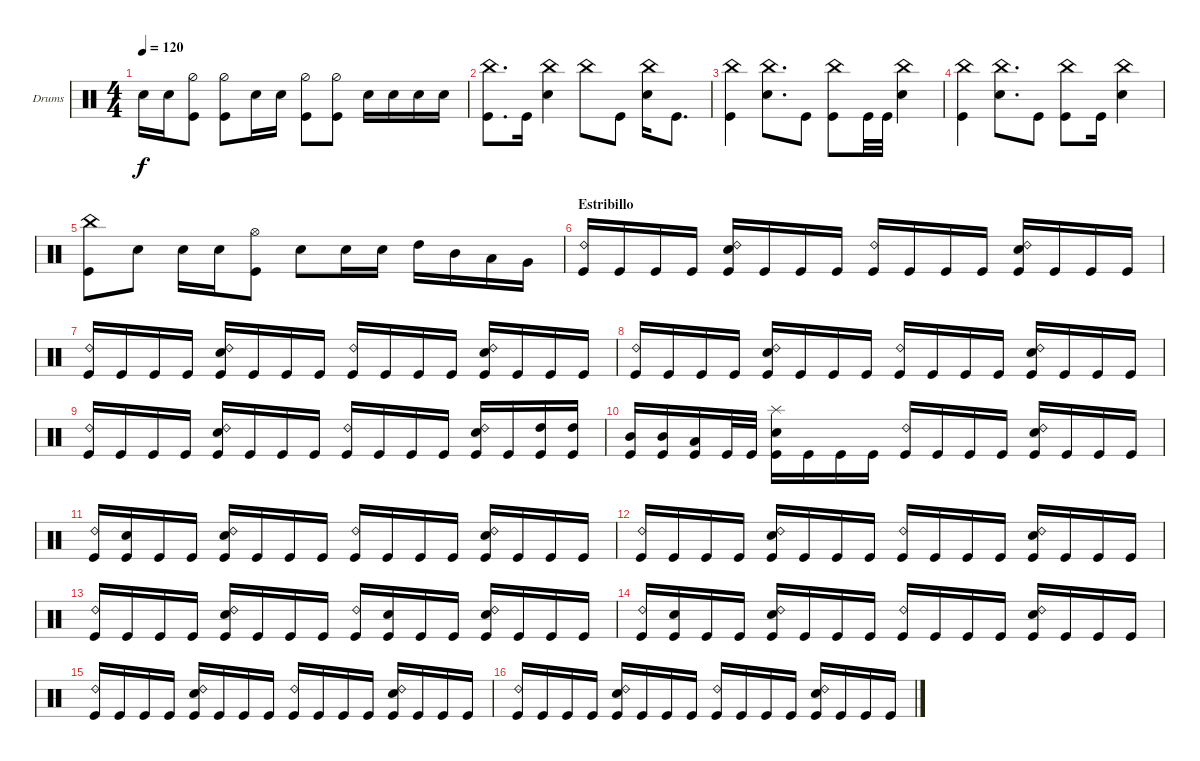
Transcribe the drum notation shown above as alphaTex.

\bracketExtendMode groupsimilarinstruments
\firstSystemTrackNameOrientation horizontal
\otherSystemsTrackNameOrientation horizontal
\track ("Drumkit" "Drums") {instrument percussion}
\staff {score}
\articulation defaults
\ts (4 4)
\tempo 120
\clef neutral
\ks c "Snare (hit) 2".16{dy f} "Snare (hit) 2".16
("Kick (hit)" "Hi-Hat (half)").8 ("Kick (hit)" "Hi-Hat (half)").8 "Snare (hit) 2".16 "Snare (hit) 2".16 ("Kick (hit)" "Hi-Hat (half)").8 ("Kick (hit)" "Hi-Hat (half)").8 "Snare (hit) 2".16 "Snare (hit) 2".16 "Snare (hit) 2".16 "Snare (hit) 2".16 |
("Kick (hit)" "China (hit)").8{d} "Kick (hit)".16 ("Snare (hit) 2" "China (hit)").4 "China (hit)".8 "Kick (hit)".8 ("Snare (hit) 2" "China (hit)").16 "Kick (hit)".8{d} |
("Kick (hit)" "China (hit)").4 ("Snare (hit) 2" "China (hit)").8{d} "Kick (hit)".8 ("Kick (hit)" "China (hit)").8 "Kick (hit)".32 "Kick (hit)".32 ("Snare (hit) 2" "China (hit)").4 |
("Kick (hit)" "China (hit)").4 ("Snare (hit) 2" "China (hit)").8{d} "Kick (hit)".8 ("Kick (hit)" "China (hit)").8 "Kick (hit)".16 ("Snare (hit) 2" "China (hit)").4 |
("Kick (hit)" "China (hit)").8 "Snare (hit) 2".8 "Snare (hit) 2".16 "Snare (hit) 2".16 ("Kick (hit)" "Hi-Hat (open)").8 "Snare (hit) 2".8 "Snare (hit) 2".16 "Snare (hit) 2".16 "High Tom (hit)".16 "Mid Tom (hit)".16 "Low Tom (hit)".16 "Very Low Tom (hit)".16 |
\section ("" "Estribillo")
("Kick (hit)" "Ride (bell) 2").16 "Kick (hit)".16 "Kick (hit)".16 "Kick (hit)".16 ("Kick (hit)" "Ride (bell) 2" "Snare (hit) 2").16 "Kick (hit)".16 "Kick (hit)".16 "Kick (hit)".16 ("Kick (hit)" "Ride (bell) 2").16 "Kick (hit)".16 "Kick (hit)".16 "Kick (hit)".16 ("Kick (hit)" "Ride (bell) 2" "Snare (hit) 2").16 "Kick (hit)".16 "Kick (hit)".16 "Kick (hit)".16 |
("Kick (hit)" "Ride (bell) 2").16 "Kick (hit)".16 "Kick (hit)".16 "Kick (hit)".16 ("Kick (hit)" "Ride (bell) 2" "Snare (hit) 2").16 "Kick (hit)".16 "Kick (hit)".16 "Kick (hit)".16 ("Kick (hit)" "Ride (bell) 2").16 "Kick (hit)".16 "Kick (hit)".16 "Kick (hit)".16 ("Kick (hit)" "Ride (bell) 2" "Snare (hit) 2").16 "Kick (hit)".16 "Kick (hit)".16 "Kick (hit)".16 |
("Kick (hit)" "Ride (bell) 2").16 "Kick (hit)".16 "Kick (hit)".16 "Kick (hit)".16 ("Kick (hit)" "Ride (bell) 2" "Snare (hit) 2").16 "Kick (hit)".16 "Kick (hit)".16 "Kick (hit)".16 ("Kick (hit)" "Ride (bell) 2").16 "Kick (hit)".16 "Kick (hit)".16 "Kick (hit)".16 ("Kick (hit)" "Ride (bell) 2" "Snare (hit) 2").16 "Kick (hit)".16 "Kick (hit)".16 "Kick (hit)".16 |
("Kick (hit)" "Ride (bell) 2").16 "Kick (hit)".16 "Kick (hit)".16 "Kick (hit)".16 ("Kick (hit)" "Ride (bell) 2" "Snare (hit) 2").16 "Kick (hit)".16 "Kick (hit)".16 "Kick (hit)".16 ("Kick (hit)" "Ride (bell) 2").16 "Kick (hit)".16 "Kick (hit)".16 "Kick (hit)".16 ("Kick (hit)" "Ride (bell) 2" "Snare (hit) 2").16 "Kick (hit)".16 ("Kick (hit)" "High Tom (hit)").16 ("Kick (hit)" "High Tom (hit)").16 |
("Mid Tom (hit)" "Kick (hit)").16 ("Mid Tom (hit)" "Kick (hit)").16 ("Low Tom (hit)" "Kick (hit)").16 "Kick (hit)".32 "Kick (hit)".32 ("Snare (hit) 2" "Kick (hit)" "Splash (hit)").16 "Kick (hit)".16 "Kick (hit)".16 "Kick (hit)".16 ("Kick (hit)" "Ride (bell) 2").16 "Kick (hit)".16 "Kick (hit)".16 "Kick (hit)".16 ("Snare (hit) 2" "Kick (hit)" "Ride (bell) 2").16 "Kick (hit)".16 "Kick (hit)".16 "Kick (hit)".16 |
("Kick (hit)" "Ride (bell) 2").16 ("Kick (hit)" "Snare (hit) 2").16 "Kick (hit)".16 "Kick (hit)".16 ("Kick (hit)" "Ride (bell) 2" "Snare (hit) 2").16 "Kick (hit)".16 "Kick (hit)".16 "Kick (hit)".16 ("Kick (hit)" "Ride (bell) 2").16 "Kick (hit)".16 "Kick (hit)".16 "Kick (hit)".16 ("Kick (hit)" "Ride (bell) 2" "Snare (hit) 2").16 "Kick (hit)".16 "Kick (hit)".16 "Kick (hit)".16 |
("Kick (hit)" "Ride (bell) 2").16 "Kick (hit)".16 "Kick (hit)".16 "Kick (hit)".16 ("Kick (hit)" "Ride (bell) 2" "Snare (hit) 2").16 "Kick (hit)".16 "Kick (hit)".16 "Kick (hit)".16 ("Kick (hit)" "Ride (bell) 2").16 "Kick (hit)".16 "Kick (hit)".16 "Kick (hit)".16 ("Kick (hit)" "Ride (bell) 2" "Snare (hit) 2").16 "Kick (hit)".16 "Kick (hit)".16 "Kick (hit)".16 |
("Kick (hit)" "Ride (bell) 2").16 "Kick (hit)".16 "Kick (hit)".16 "Kick (hit)".16 ("Kick (hit)" "Ride (bell) 2" "Snare (hit) 2").16 "Kick (hit)".16 "Kick (hit)".16 "Kick (hit)".16 ("Kick (hit)" "Ride (bell) 2").16 ("Kick (hit)" "Snare (hit) 2").16 "Kick (hit)".16 "Kick (hit)".16 ("Kick (hit)" "Ride (bell) 2" "Snare (hit) 2").16 "Kick (hit)".16 "Kick (hit)".16 "Kick (hit)".16 |
("Kick (hit)" "Ride (bell) 2").16 ("Kick (hit)" "Snare (hit) 2").16 "Kick (hit)".16 "Kick (hit)".16 ("Kick (hit)" "Ride (bell) 2" "Snare (hit) 2").16 "Kick (hit)".16 "Kick (hit)".16 "Kick (hit)".16 ("Kick (hit)" "Ride (bell) 2").16 "Kick (hit)".16 "Kick (hit)".16 "Kick (hit)".16 ("Kick (hit)" "Ride (bell) 2" "Snare (hit) 2").16 "Kick (hit)".16 "Kick (hit)".16 "Kick (hit)".16 |
("Kick (hit)" "Ride (bell) 2").16 "Kick (hit)".16 "Kick (hit)".16 "Kick (hit)".16 ("Kick (hit)" "Ride (bell) 2" "Snare (hit) 2").16 "Kick (hit)".16 "Kick (hit)".16 "Kick (hit)".16 ("Kick (hit)" "Ride (bell) 2").16 "Kick (hit)".16 "Kick (hit)".16 "Kick (hit)".16 ("Kick (hit)" "Ride (bell) 2" "Snare (hit) 2").16 "Kick (hit)".16 "Kick (hit)".16 "Kick (hit)".16 |
("Kick (hit)" "Ride (bell) 2").16 "Kick (hit)".16 "Kick (hit)".16 "Kick (hit)".16 ("Kick (hit)" "Ride (bell) 2" "Snare (hit) 2").16 "Kick (hit)".16 "Kick (hit)".16 "Kick (hit)".16 ("Kick (hit)" "Ride (bell) 2").16 "Kick (hit)".16 "Kick (hit)".16 "Kick (hit)".16 ("Kick (hit)" "Ride (bell) 2" "Snare (hit) 2").16 "Kick (hit)".16 "Kick (hit)".16 "Kick (hit)".16
